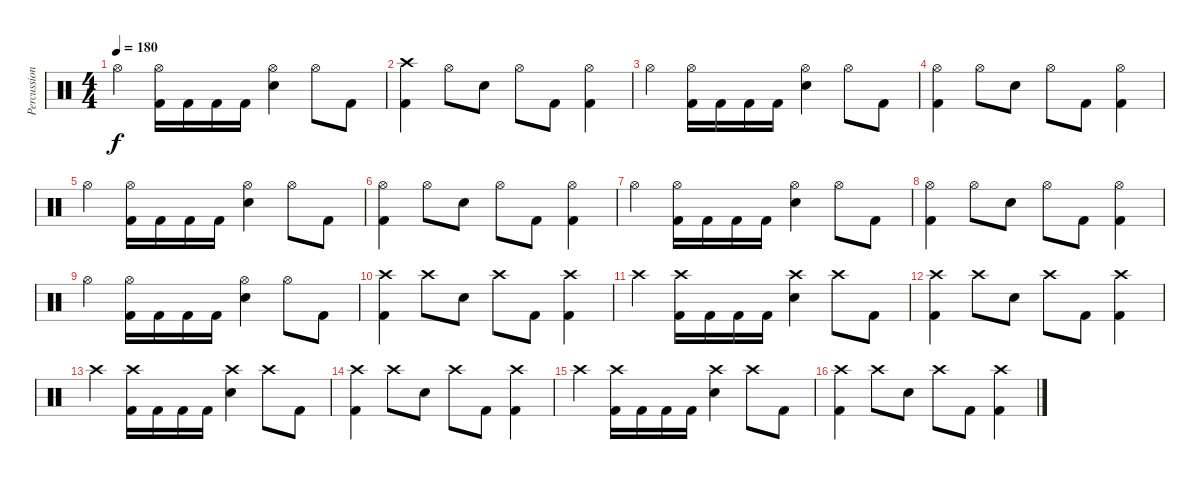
\track ("Percussion" "Percussion") {instrument percussion}
\staff {score}
\articulation defaults
\ts (4 4)
\tempo 180
\clef neutral
\ks c "Hi-Hat (open)".4{dy f}
("Hi-Hat (open)" "Kick (hit) 2").16 "Kick (hit) 2".16 "Kick (hit) 2".16 "Kick (hit) 2".16 ("Hi-Hat (open)" "Snare (hit) 2").4 "Hi-Hat (open)".8 "Kick (hit) 2".8 |
("Crash high (hit)" "Kick (hit) 2").4 "Hi-Hat (open)".8 "Snare (hit) 2".8 "Hi-Hat (open)".8 "Kick (hit) 2".8 ("Hi-Hat (open)" "Kick (hit) 2").4 |
"Hi-Hat (open)".4 ("Hi-Hat (open)" "Kick (hit) 2").16 "Kick (hit) 2".16 "Kick (hit) 2".16 "Kick (hit) 2".16 ("Hi-Hat (open)" "Snare (hit) 2").4 "Hi-Hat (open)".8 "Kick (hit) 2".8 |
("Hi-Hat (open)" "Kick (hit) 2").4 "Hi-Hat (open)".8 "Snare (hit) 2".8 "Hi-Hat (open)".8 "Kick (hit) 2".8 ("Hi-Hat (open)" "Kick (hit) 2").4 |
"Hi-Hat (open)".4 ("Hi-Hat (open)" "Kick (hit) 2").16 "Kick (hit) 2".16 "Kick (hit) 2".16 "Kick (hit) 2".16 ("Hi-Hat (open)" "Snare (hit) 2").4 "Hi-Hat (open)".8 "Kick (hit) 2".8 |
("Hi-Hat (open)" "Kick (hit) 2").4 "Hi-Hat (open)".8 "Snare (hit) 2".8 "Hi-Hat (open)".8 "Kick (hit) 2".8 ("Hi-Hat (open)" "Kick (hit) 2").4 |
"Hi-Hat (open)".4 ("Hi-Hat (open)" "Kick (hit) 2").16 "Kick (hit) 2".16 "Kick (hit) 2".16 "Kick (hit) 2".16 ("Hi-Hat (open)" "Snare (hit) 2").4 "Hi-Hat (open)".8 "Kick (hit) 2".8 |
("Hi-Hat (open)" "Kick (hit) 2").4 "Hi-Hat (open)".8 "Snare (hit) 2".8 "Hi-Hat (open)".8 "Kick (hit) 2".8 ("Hi-Hat (open)" "Kick (hit) 2").4 |
"Hi-Hat (open)".4 ("Hi-Hat (open)" "Kick (hit) 2").16 "Kick (hit) 2".16 "Kick (hit) 2".16 "Kick (hit) 2".16 ("Hi-Hat (open)" "Snare (hit) 2").4 "Hi-Hat (open)".8 "Kick (hit) 2".8 |
("Crash high (hit)" "Kick (hit) 2").4 "Crash high (hit)".8 "Snare (hit) 2".8 "Crash high (hit)".8 "Kick (hit) 2".8 ("Crash high (hit)" "Kick (hit) 2").4 |
"Crash high (hit)".4 ("Crash high (hit)" "Kick (hit) 2").16 "Kick (hit) 2".16 "Kick (hit) 2".16 "Kick (hit) 2".16 ("Crash high (hit)" "Snare (hit) 2").4 "Crash high (hit)".8 "Kick (hit) 2".8 |
("Crash high (hit)" "Kick (hit) 2").4 "Crash high (hit)".8 "Snare (hit) 2".8 "Crash high (hit)".8 "Kick (hit) 2".8 ("Crash high (hit)" "Kick (hit) 2").4 |
"Crash high (hit)".4 ("Crash high (hit)" "Kick (hit) 2").16 "Kick (hit) 2".16 "Kick (hit) 2".16 "Kick (hit) 2".16 ("Crash high (hit)" "Snare (hit) 2").4 "Crash high (hit)".8 "Kick (hit) 2".8 |
("Crash high (hit)" "Kick (hit) 2").4 "Crash high (hit)".8 "Snare (hit) 2".8 "Crash high (hit)".8 "Kick (hit) 2".8 ("Crash high (hit)" "Kick (hit) 2").4 |
"Crash high (hit)".4 ("Crash high (hit)" "Kick (hit) 2").16 "Kick (hit) 2".16 "Kick (hit) 2".16 "Kick (hit) 2".16 ("Crash high (hit)" "Snare (hit) 2").4 "Crash high (hit)".8 "Kick (hit) 2".8 |
("Crash high (hit)" "Kick (hit) 2").4 "Crash high (hit)".8 "Snare (hit) 2".8 "Crash high (hit)".8 "Kick (hit) 2".8 ("Crash high (hit)" "Kick (hit) 2").4
